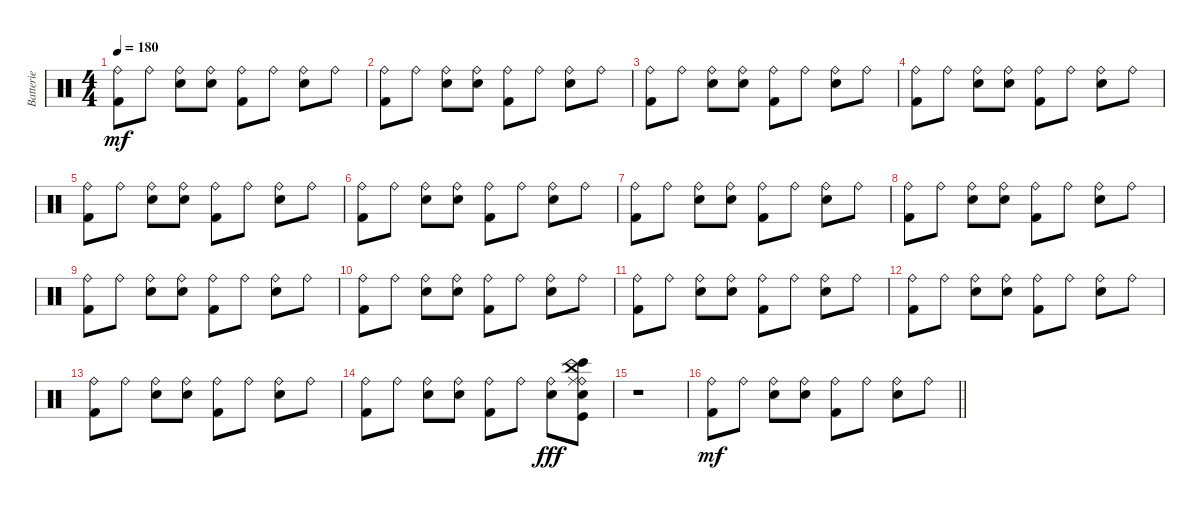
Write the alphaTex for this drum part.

\track ("Batterie" "Batterie") {instrument percussion}
\staff {score}
\articulation defaults
\ts (4 4)
\tempo 180
\clef neutral
\ks c
("Kick (hit) 2" "Ride (bell)").8{dy mf} "Ride (bell)".8 ("Electric Snare (hit)" "Ride (bell)").8 ("Electric Snare (hit)" "Ride (bell)").8 ("Kick (hit) 2" "Ride (bell)").8 "Ride (bell)".8 ("Electric Snare (hit)" "Ride (bell)").8 "Ride (bell)".8 |
("Kick (hit) 2" "Ride (bell)").8 "Ride (bell)".8 ("Electric Snare (hit)" "Ride (bell)").8 ("Electric Snare (hit)" "Ride (bell)").8 ("Kick (hit) 2" "Ride (bell)").8 "Ride (bell)".8 ("Electric Snare (hit)" "Ride (bell)").8 "Ride (bell)".8 |
("Kick (hit) 2" "Ride (bell)").8 "Ride (bell)".8 ("Electric Snare (hit)" "Ride (bell)").8 ("Electric Snare (hit)" "Ride (bell)").8 ("Kick (hit) 2" "Ride (bell)").8 "Ride (bell)".8 ("Electric Snare (hit)" "Ride (bell)").8 "Ride (bell)".8 |
("Kick (hit) 2" "Ride (bell)").8 "Ride (bell)".8 ("Electric Snare (hit)" "Ride (bell)").8 ("Electric Snare (hit)" "Ride (bell)").8 ("Kick (hit) 2" "Ride (bell)").8 "Ride (bell)".8 ("Electric Snare (hit)" "Ride (bell)").8 "Ride (bell)".8 |
("Kick (hit) 2" "Ride (bell)").8 "Ride (bell)".8 ("Electric Snare (hit)" "Ride (bell)").8 ("Electric Snare (hit)" "Ride (bell)").8 ("Kick (hit) 2" "Ride (bell)").8 "Ride (bell)".8 ("Electric Snare (hit)" "Ride (bell)").8 "Ride (bell)".8 |
("Kick (hit) 2" "Ride (bell)").8 "Ride (bell)".8 ("Electric Snare (hit)" "Ride (bell)").8 ("Electric Snare (hit)" "Ride (bell)").8 ("Kick (hit) 2" "Ride (bell)").8 "Ride (bell)".8 ("Electric Snare (hit)" "Ride (bell)").8 "Ride (bell)".8 |
("Kick (hit) 2" "Ride (bell)").8 "Ride (bell)".8 ("Electric Snare (hit)" "Ride (bell)").8 ("Electric Snare (hit)" "Ride (bell)").8 ("Kick (hit) 2" "Ride (bell)").8 "Ride (bell)".8 ("Electric Snare (hit)" "Ride (bell)").8 "Ride (bell)".8 |
("Kick (hit) 2" "Ride (bell)").8 "Ride (bell)".8 ("Electric Snare (hit)" "Ride (bell)").8 ("Electric Snare (hit)" "Ride (bell)").8 ("Kick (hit) 2" "Ride (bell)").8 "Ride (bell)".8 ("Electric Snare (hit)" "Ride (bell)").8 "Ride (bell)".8 |
("Kick (hit) 2" "Ride (bell)").8 "Ride (bell)".8 ("Electric Snare (hit)" "Ride (bell)").8 ("Electric Snare (hit)" "Ride (bell)").8 ("Kick (hit) 2" "Ride (bell)").8 "Ride (bell)".8 ("Electric Snare (hit)" "Ride (bell)").8 "Ride (bell)".8 |
("Kick (hit) 2" "Ride (bell)").8 "Ride (bell)".8 ("Electric Snare (hit)" "Ride (bell)").8 ("Electric Snare (hit)" "Ride (bell)").8 ("Kick (hit) 2" "Ride (bell)").8 "Ride (bell)".8 ("Electric Snare (hit)" "Ride (bell)").8 "Ride (bell)".8 |
("Kick (hit) 2" "Ride (bell)").8 "Ride (bell)".8 ("Electric Snare (hit)" "Ride (bell)").8 ("Electric Snare (hit)" "Ride (bell)").8 ("Kick (hit) 2" "Ride (bell)").8 "Ride (bell)".8 ("Electric Snare (hit)" "Ride (bell)").8 "Ride (bell)".8 |
("Kick (hit) 2" "Ride (bell)").8 "Ride (bell)".8 ("Electric Snare (hit)" "Ride (bell)").8 ("Electric Snare (hit)" "Ride (bell)").8 ("Kick (hit) 2" "Ride (bell)").8 "Ride (bell)".8 ("Electric Snare (hit)" "Ride (bell)").8 "Ride (bell)".8 |
("Kick (hit) 2" "Ride (bell)").8 "Ride (bell)".8 ("Electric Snare (hit)" "Ride (bell)").8 ("Electric Snare (hit)" "Ride (bell)").8 ("Kick (hit) 2" "Ride (bell)").8 "Ride (bell)".8 ("Electric Snare (hit)" "Ride (bell)").8 "Ride (bell)".8 |
("Kick (hit) 2" "Ride (bell)").8 "Ride (bell)".8 ("Electric Snare (hit)" "Ride (bell)").8 ("Electric Snare (hit)" "Ride (bell)").8 ("Kick (hit) 2" "Ride (bell)").8 "Ride (bell)".8 ("Electric Snare (hit)" "Ride (bell)").8{dy fff} ("Bongo High (hit)" "Electric Snare (hit)" "Kick (hit)" "Ride (bell)" "Ride (middle)" "China (hit)").8 |
r.1 |
\barLineRight lightlight
("Kick (hit) 2" "Ride (bell)").8{dy mf} "Ride (bell)".8 ("Electric Snare (hit)" "Ride (bell)").8 ("Electric Snare (hit)" "Ride (bell)").8 ("Kick (hit) 2" "Ride (bell)").8 "Ride (bell)".8 ("Electric Snare (hit)" "Ride (bell)").8 "Ride (bell)".8
